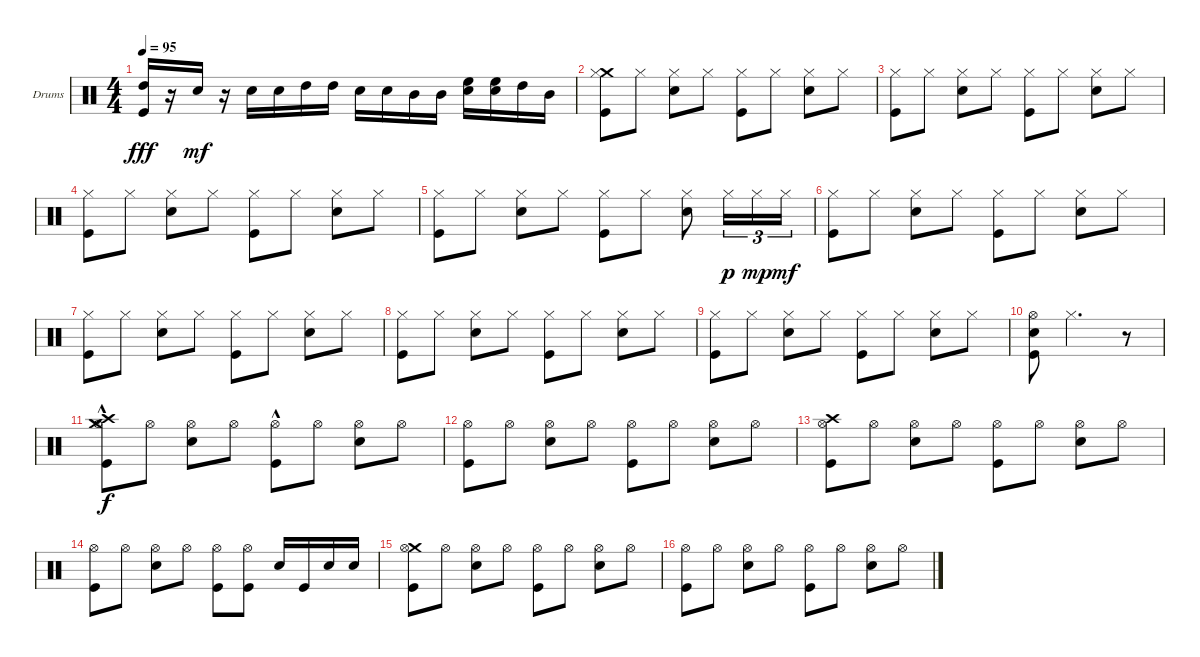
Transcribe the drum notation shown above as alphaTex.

\bracketExtendMode groupsimilarinstruments
\firstSystemTrackNameOrientation horizontal
\otherSystemsTrackNameOrientation horizontal
\track ("Drumkit" "Drums") {solo instrument percussion}
\staff {score}
\articulation defaults
\ts (4 4)
\tempo 95
\clef neutral
\scale
0.5
\ks c
("High Tom (hit)" "Kick (hit)").16{dy fff} r.16 "Snare (hit) 2".16{dy mf} r.16 "Snare (hit) 2".16 "Snare (hit) 2".16 "High Tom (hit)".16 "High Tom (hit)".16 "Snare (hit) 2".16 "Snare (hit) 2".16 "Mid Tom (hit)".16 "Mid Tom (hit)".16 ("Snare (hit) 2" "High Floor Tom (hit)").16 ("Snare (hit) 2" "High Floor Tom (hit)").16 "High Tom (hit)".16 "Mid Tom (hit)".16 |
\scale
0.5 ("Crash medium (hit)" "Hi-Hat (closed)" "Kick (hit)").8 "Hi-Hat (closed)".8 ("Hi-Hat (closed)" "Snare (hit) 2").8 "Hi-Hat (closed)".8 ("Hi-Hat (closed)" "Kick (hit)").8 "Hi-Hat (closed)".8 ("Hi-Hat (closed)" "Snare (hit) 2").8 "Hi-Hat (closed)".8 |
\scale
0.5 ("Hi-Hat (closed)" "Kick (hit)").8 "Hi-Hat (closed)".8 ("Hi-Hat (closed)" "Snare (hit) 2").8 "Hi-Hat (closed)".8 ("Hi-Hat (closed)" "Kick (hit)").8 "Hi-Hat (closed)".8 ("Hi-Hat (closed)" "Snare (hit) 2").8 "Hi-Hat (closed)".8 |
\scale
0.5 ("Hi-Hat (closed)" "Kick (hit)").8 "Hi-Hat (closed)".8 ("Hi-Hat (closed)" "Snare (hit) 2").8 "Hi-Hat (closed)".8 ("Hi-Hat (closed)" "Kick (hit)").8 "Hi-Hat (closed)".8 ("Hi-Hat (closed)" "Snare (hit) 2").8 "Hi-Hat (closed)".8 |
\scale
0.5 ("Hi-Hat (closed)" "Kick (hit)").8 "Hi-Hat (closed)".8 ("Hi-Hat (closed)" "Snare (hit) 2").8 "Hi-Hat (closed)".8 ("Hi-Hat (closed)" "Kick (hit)").8 "Hi-Hat (closed)".8 ("Hi-Hat (closed)" "Snare (hit) 2").8 "Hi-Hat (closed)".16{tu (3 2) dy p} "Hi-Hat (closed)".16{tu (3 2) dy mp} "Hi-Hat (closed)".16{tu (3 2) dy mf} |
\scale
0.5 ("Hi-Hat (closed)" "Kick (hit)").8 "Hi-Hat (closed)".8 ("Hi-Hat (closed)" "Snare (hit) 2").8 "Hi-Hat (closed)".8 ("Hi-Hat (closed)" "Kick (hit)").8 "Hi-Hat (closed)".8 ("Hi-Hat (closed)" "Snare (hit) 2").8 "Hi-Hat (closed)".8 |
\scale
0.5 ("Hi-Hat (closed)" "Kick (hit)").8 "Hi-Hat (closed)".8 ("Hi-Hat (closed)" "Snare (hit) 2").8 "Hi-Hat (closed)".8 ("Hi-Hat (closed)" "Kick (hit)").8 "Hi-Hat (closed)".8 ("Hi-Hat (closed)" "Snare (hit) 2").8 "Hi-Hat (closed)".8 |
\scale
0.5 ("Hi-Hat (closed)" "Kick (hit)").8 "Hi-Hat (closed)".8 ("Hi-Hat (closed)" "Snare (hit) 2").8 "Hi-Hat (closed)".8 ("Hi-Hat (closed)" "Kick (hit)").8 "Hi-Hat (closed)".8 ("Hi-Hat (closed)" "Snare (hit) 2").8 "Hi-Hat (closed)".8 |
\scale
0.5 ("Hi-Hat (closed)" "Kick (hit)").8 "Hi-Hat (closed)".8 ("Hi-Hat (closed)" "Snare (hit) 2").8 "Hi-Hat (closed)".8 ("Hi-Hat (closed)" "Kick (hit)").8 "Hi-Hat (closed)".8 ("Hi-Hat (closed)" "Snare (hit) 2").8 "Hi-Hat (closed)".8 |
\scale
0.5 ("Hi-Hat (open)" "Snare (hit) 2" "Kick (hit)").8 "Hi-Hat (closed)".2{d} r.8 |
\scale
0.5 ("Crash medium (hit)" "Crash high (hit)" "Hi-Hat (open)" "Kick (hit)"{hac}).8{dy f} "Hi-Hat (open)".8 ("Hi-Hat (open)" "Snare (hit) 2").8 "Hi-Hat (open)".8 ("Hi-Hat (open)" "Kick (hit)"{hac}).8 "Hi-Hat (open)".8 ("Hi-Hat (open)" "Snare (hit) 2").8 "Hi-Hat (open)".8 |
\scale
0.5 ("Hi-Hat (open)" "Kick (hit)").8 "Hi-Hat (open)".8 ("Hi-Hat (open)" "Snare (hit) 2").8 "Hi-Hat (open)".8 ("Hi-Hat (open)" "Kick (hit)").8 "Hi-Hat (open)".8 ("Hi-Hat (open)" "Snare (hit) 2").8 "Hi-Hat (open)".8 |
\scale
0.5 ("Crash high (hit)" "Hi-Hat (open)" "Kick (hit)").8 "Hi-Hat (open)".8 ("Hi-Hat (open)" "Snare (hit) 2").8 "Hi-Hat (open)".8 ("Hi-Hat (open)" "Kick (hit)").8 "Hi-Hat (open)".8 ("Hi-Hat (open)" "Snare (hit) 2").8 "Hi-Hat (open)".8 |
\scale
0.5 ("Hi-Hat (open)" "Kick (hit)").8 "Hi-Hat (open)".8 ("Hi-Hat (open)" "Snare (hit) 2").8 "Hi-Hat (open)".8 ("Hi-Hat (open)" "Kick (hit)").8 ("Hi-Hat (open)" "Kick (hit)").8 "Snare (hit) 2".16 "Kick (hit)".16 "Snare (hit) 2".16 "Snare (hit) 2".16 |
\scale
0.5 ("Crash medium (hit)" "Hi-Hat (open)" "Kick (hit)").8 "Hi-Hat (open)".8 ("Hi-Hat (open)" "Snare (hit) 2").8 "Hi-Hat (open)".8 ("Hi-Hat (open)" "Kick (hit)").8 "Hi-Hat (open)".8 ("Hi-Hat (open)" "Snare (hit) 2").8 "Hi-Hat (open)".8 |
\scale
0.5 ("Hi-Hat (open)" "Kick (hit)").8 "Hi-Hat (open)".8 ("Hi-Hat (open)" "Snare (hit) 2").8 "Hi-Hat (open)".8 ("Hi-Hat (open)" "Kick (hit)").8 "Hi-Hat (open)".8 ("Hi-Hat (open)" "Snare (hit) 2").8 "Hi-Hat (open)".8
